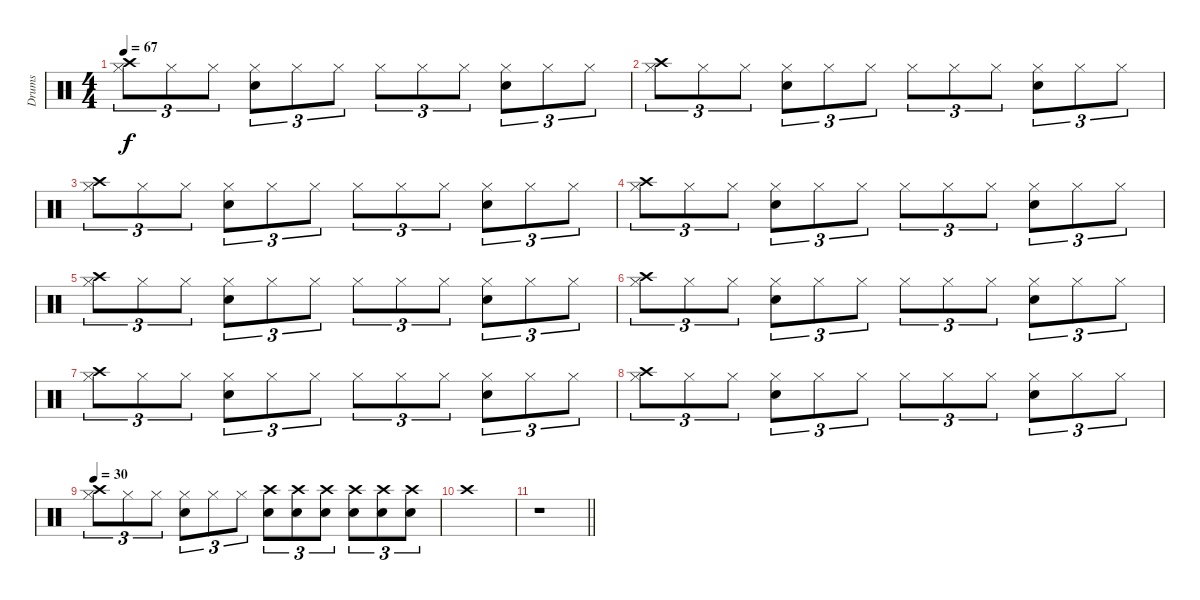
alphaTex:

\track ("Drums" "Drums") {instrument percussion}
\staff {score}
\articulation defaults
\ts (4 4)
\tempo 67
\clef neutral
\ks c
("Crash high (hit)" "Hi-Hat (closed)").8{tu (3 2) dy f} "Hi-Hat (closed)".8{tu (3 2)} "Hi-Hat (closed)".8{tu (3 2)} ("Hi-Hat (closed)" "Snare (hit) 2").8{tu (3 2)} "Hi-Hat (closed)".8{tu (3 2)} "Hi-Hat (closed)".8{tu (3 2)} "Hi-Hat (closed)".8{tu (3 2)} "Hi-Hat (closed)".8{tu (3 2)} "Hi-Hat (closed)".8{tu (3 2)} ("Hi-Hat (closed)" "Snare (hit) 2").8{tu (3 2)} "Hi-Hat (closed)".8{tu (3 2)} "Hi-Hat (closed)".8{tu (3 2)} |
("Crash high (hit)" "Hi-Hat (closed)").8{tu (3 2)} "Hi-Hat (closed)".8{tu (3 2)} "Hi-Hat (closed)".8{tu (3 2)} ("Hi-Hat (closed)" "Snare (hit) 2").8{tu (3 2)} "Hi-Hat (closed)".8{tu (3 2)} "Hi-Hat (closed)".8{tu (3 2)} "Hi-Hat (closed)".8{tu (3 2)} "Hi-Hat (closed)".8{tu (3 2)} "Hi-Hat (closed)".8{tu (3 2)} ("Hi-Hat (closed)" "Snare (hit) 2").8{tu (3 2)} "Hi-Hat (closed)".8{tu (3 2)} "Hi-Hat (closed)".8{tu (3 2)} |
("Crash high (hit)" "Hi-Hat (closed)").8{tu (3 2)} "Hi-Hat (closed)".8{tu (3 2)} "Hi-Hat (closed)".8{tu (3 2)} ("Hi-Hat (closed)" "Snare (hit) 2").8{tu (3 2)} "Hi-Hat (closed)".8{tu (3 2)} "Hi-Hat (closed)".8{tu (3 2)} "Hi-Hat (closed)".8{tu (3 2)} "Hi-Hat (closed)".8{tu (3 2)} "Hi-Hat (closed)".8{tu (3 2)} ("Hi-Hat (closed)" "Snare (hit) 2").8{tu (3 2)} "Hi-Hat (closed)".8{tu (3 2)} "Hi-Hat (closed)".8{tu (3 2)} |
("Crash high (hit)" "Hi-Hat (closed)").8{tu (3 2)} "Hi-Hat (closed)".8{tu (3 2)} "Hi-Hat (closed)".8{tu (3 2)} ("Hi-Hat (closed)" "Snare (hit) 2").8{tu (3 2)} "Hi-Hat (closed)".8{tu (3 2)} "Hi-Hat (closed)".8{tu (3 2)} "Hi-Hat (closed)".8{tu (3 2)} "Hi-Hat (closed)".8{tu (3 2)} "Hi-Hat (closed)".8{tu (3 2)} ("Hi-Hat (closed)" "Snare (hit) 2").8{tu (3 2)} "Hi-Hat (closed)".8{tu (3 2)} "Hi-Hat (closed)".8{tu (3 2)} |
("Crash high (hit)" "Hi-Hat (closed)").8{tu (3 2)} "Hi-Hat (closed)".8{tu (3 2)} "Hi-Hat (closed)".8{tu (3 2)} ("Hi-Hat (closed)" "Snare (hit) 2").8{tu (3 2)} "Hi-Hat (closed)".8{tu (3 2)} "Hi-Hat (closed)".8{tu (3 2)} "Hi-Hat (closed)".8{tu (3 2)} "Hi-Hat (closed)".8{tu (3 2)} "Hi-Hat (closed)".8{tu (3 2)} ("Hi-Hat (closed)" "Snare (hit) 2").8{tu (3 2)} "Hi-Hat (closed)".8{tu (3 2)} "Hi-Hat (closed)".8{tu (3 2)} |
("Crash high (hit)" "Hi-Hat (closed)").8{tu (3 2)} "Hi-Hat (closed)".8{tu (3 2)} "Hi-Hat (closed)".8{tu (3 2)} ("Hi-Hat (closed)" "Snare (hit) 2").8{tu (3 2)} "Hi-Hat (closed)".8{tu (3 2)} "Hi-Hat (closed)".8{tu (3 2)} "Hi-Hat (closed)".8{tu (3 2)} "Hi-Hat (closed)".8{tu (3 2)} "Hi-Hat (closed)".8{tu (3 2)} ("Hi-Hat (closed)" "Snare (hit) 2").8{tu (3 2)} "Hi-Hat (closed)".8{tu (3 2)} "Hi-Hat (closed)".8{tu (3 2)} |
("Crash high (hit)" "Hi-Hat (closed)").8{tu (3 2)} "Hi-Hat (closed)".8{tu (3 2)} "Hi-Hat (closed)".8{tu (3 2)} ("Hi-Hat (closed)" "Snare (hit) 2").8{tu (3 2)} "Hi-Hat (closed)".8{tu (3 2)} "Hi-Hat (closed)".8{tu (3 2)} "Hi-Hat (closed)".8{tu (3 2)} "Hi-Hat (closed)".8{tu (3 2)} "Hi-Hat (closed)".8{tu (3 2)} ("Hi-Hat (closed)" "Snare (hit) 2").8{tu (3 2)} "Hi-Hat (closed)".8{tu (3 2)} "Hi-Hat (closed)".8{tu (3 2)} |
("Crash high (hit)" "Hi-Hat (closed)").8{tu (3 2)} "Hi-Hat (closed)".8{tu (3 2)} "Hi-Hat (closed)".8{tu (3 2)} ("Hi-Hat (closed)" "Snare (hit) 2").8{tu (3 2)} "Hi-Hat (closed)".8{tu (3 2)} "Hi-Hat (closed)".8{tu (3 2)} "Hi-Hat (closed)".8{tu (3 2)} "Hi-Hat (closed)".8{tu (3 2)} "Hi-Hat (closed)".8{tu (3 2)} ("Hi-Hat (closed)" "Snare (hit) 2").8{tu (3 2)} "Hi-Hat (closed)".8{tu (3 2)} "Hi-Hat (closed)".8{tu (3 2)} |
\tempo 30
("Crash high (hit)" "Hi-Hat (closed)").8{tu (3 2)} "Hi-Hat (closed)".8{tu (3 2)} "Hi-Hat (closed)".8{tu (3 2)} ("Hi-Hat (closed)" "Snare (hit) 2").8{tu (3 2)} "Hi-Hat (closed)".8{tu (3 2)} "Hi-Hat (closed)".8{tu (3 2)} ("Crash high (hit)" "Snare (hit) 2").8{tu (3 2)} ("Crash high (hit)" "Snare (hit) 2").8{tu (3 2)} ("Crash high (hit)" "Snare (hit) 2").8{tu (3 2)} ("Crash high (hit)" "Snare (hit) 2").8{tu (3 2)} ("Crash high (hit)" "Snare (hit) 2").8{tu (3 2)} ("Crash high (hit)" "Snare (hit) 2").8{tu (3 2)} |
"Crash high (hit)".1 |
\barLineRight lightlight
r.1
